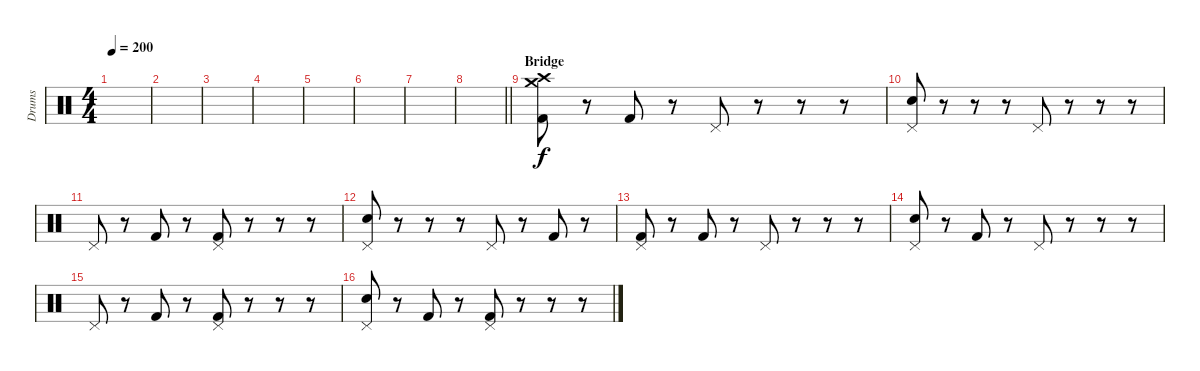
\track ("Drums" "Drums") {instrument percussion}
\staff {score}
\articulation defaults
\ts (4 4)
\tempo 200
\clef neutral
\ks c
|
|
|
|
|
|
|
\barLineRight lightlight
|
\section ("" "Bridge")
("Crash medium (hit)" "Crash high (hit)" "Kick (hit) 2").8 r.8 "Kick (hit) 2".8 r.8 "Pedal Hi-Hat (hit)".8 r.8 r.8 r.8 |
("Pedal Hi-Hat (hit)" "Electric Snare (hit)").8 r.8 r.8 r.8 "Pedal Hi-Hat (hit)".8 r.8 r.8 r.8 |
"Pedal Hi-Hat (hit)".8 r.8 "Kick (hit) 2".8 r.8 ("Pedal Hi-Hat (hit)" "Kick (hit) 2").8 r.8 r.8 r.8 |
("Pedal Hi-Hat (hit)" "Electric Snare (hit)").8 r.8 r.8 r.8 "Pedal Hi-Hat (hit)".8 r.8 "Kick (hit) 2".8 r.8 |
("Pedal Hi-Hat (hit)" "Kick (hit) 2").8 r.8 "Kick (hit) 2".8 r.8 "Pedal Hi-Hat (hit)".8 r.8 r.8 r.8 |
("Pedal Hi-Hat (hit)" "Electric Snare (hit)").8 r.8 "Kick (hit) 2".8 r.8 "Pedal Hi-Hat (hit)".8 r.8 r.8 r.8 |
"Pedal Hi-Hat (hit)".8 r.8 "Kick (hit) 2".8 r.8 ("Pedal Hi-Hat (hit)" "Kick (hit) 2").8 r.8 r.8 r.8 |
("Pedal Hi-Hat (hit)" "Electric Snare (hit)").8 r.8 "Kick (hit) 2".8 r.8 ("Pedal Hi-Hat (hit)" "Kick (hit) 2").8 r.8 r.8 r.8
